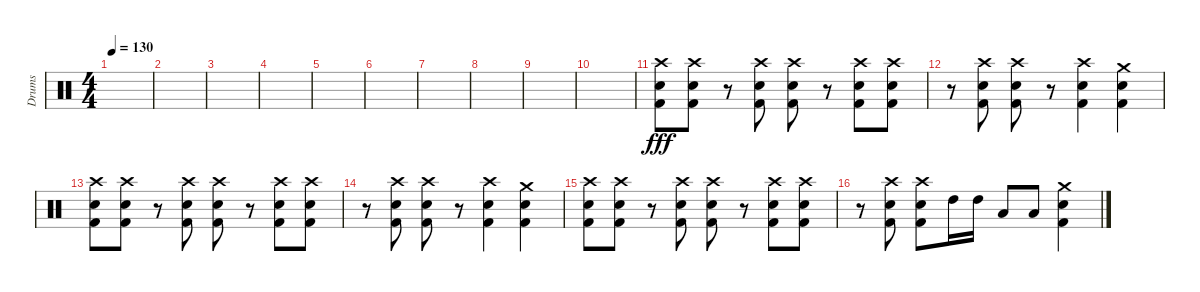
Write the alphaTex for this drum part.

\track ("Drums" "Drums") {instrument percussion}
\staff {score}
\articulation defaults
\ts (4 4)
\tempo 130
\clef neutral
\ks c
|
|
|
|
|
|
|
|
|
|
("Crash high (hit)" "Snare (hit) 2" "Kick (hit) 2").8{dy fff} ("Crash high (hit)" "Snare (hit) 2" "Kick (hit) 2").8 r.8 ("Crash high (hit)" "Snare (hit) 2" "Kick (hit) 2").8 ("Crash high (hit)" "Snare (hit) 2" "Kick (hit) 2").8 r.8 ("Crash high (hit)" "Snare (hit) 2" "Kick (hit) 2").8 ("Crash high (hit)" "Snare (hit) 2" "Kick (hit) 2").8 |
r.8 ("Crash high (hit)" "Snare (hit) 2" "Kick (hit) 2").8 ("Crash high (hit)" "Snare (hit) 2" "Kick (hit) 2").8 r.8 ("Crash high (hit)" "Snare (hit) 2" "Kick (hit) 2").4 ("Crash medium (hit)" "Snare (hit) 2" "Kick (hit) 2").4 |
("Crash high (hit)" "Snare (hit) 2" "Kick (hit) 2").8 ("Crash high (hit)" "Snare (hit) 2" "Kick (hit) 2").8 r.8 ("Crash high (hit)" "Snare (hit) 2" "Kick (hit) 2").8 ("Crash high (hit)" "Snare (hit) 2" "Kick (hit) 2").8 r.8 ("Crash high (hit)" "Snare (hit) 2" "Kick (hit) 2").8 ("Crash high (hit)" "Snare (hit) 2" "Kick (hit) 2").8 |
r.8 ("Crash high (hit)" "Snare (hit) 2" "Kick (hit) 2").8 ("Crash high (hit)" "Snare (hit) 2" "Kick (hit) 2").8 r.8 ("Crash high (hit)" "Snare (hit) 2" "Kick (hit) 2").4 ("Crash medium (hit)" "Snare (hit) 2" "Kick (hit) 2").4 |
("Crash high (hit)" "Snare (hit) 2" "Kick (hit) 2").8 ("Crash high (hit)" "Snare (hit) 2" "Kick (hit) 2").8 r.8 ("Crash high (hit)" "Snare (hit) 2" "Kick (hit) 2").8 ("Crash high (hit)" "Snare (hit) 2" "Kick (hit) 2").8 r.8 ("Crash high (hit)" "Snare (hit) 2" "Kick (hit) 2").8 ("Crash high (hit)" "Snare (hit) 2" "Kick (hit) 2").8 |
r.8 ("Crash high (hit)" "Snare (hit) 2" "Kick (hit) 2").8 ("Crash high (hit)" "Snare (hit) 2" "Kick (hit) 2").8 "High Tom (hit)".16 "High Tom (hit)".16 "Low Tom (hit)".8 "Low Tom (hit)".8 ("Crash medium (hit)" "Snare (hit) 2" "Kick (hit) 2").4
